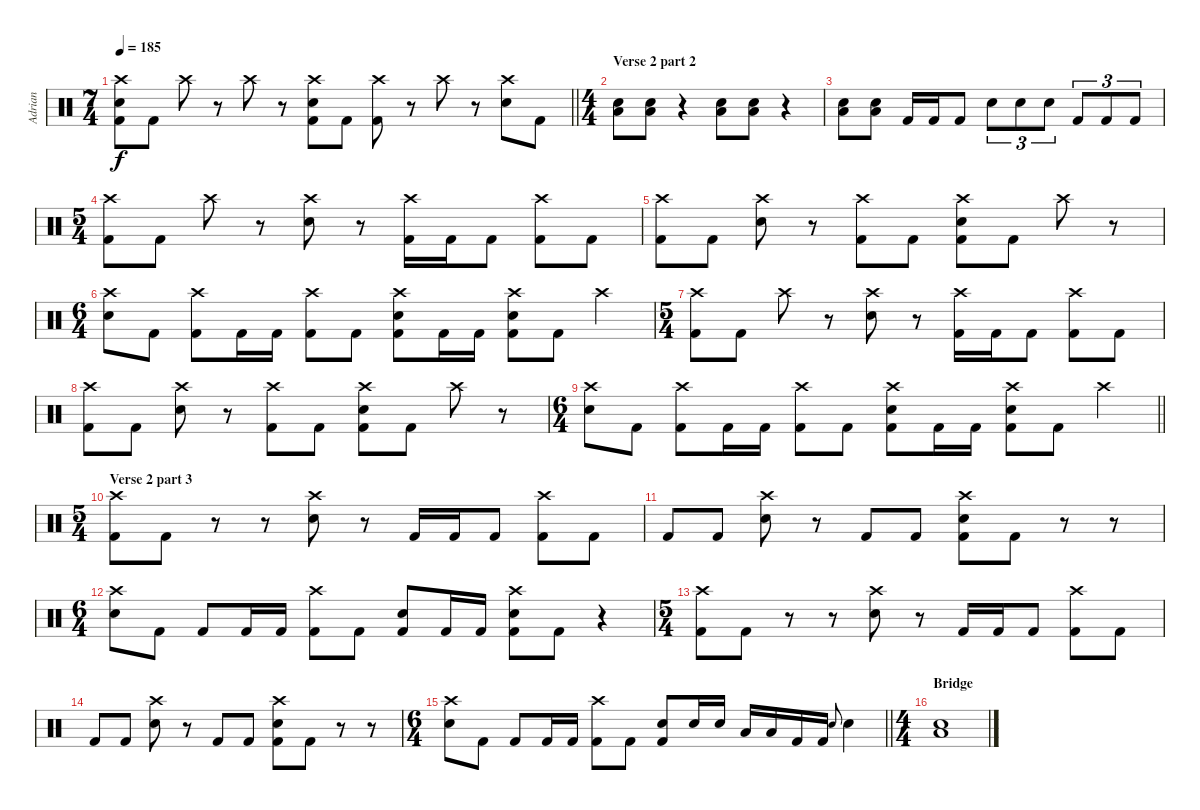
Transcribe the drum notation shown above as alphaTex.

\track ("Adrian" "Adrian") {instrument percussion}
\staff {score}
\articulation defaults
\ts (7 4)
\tempo 185
\clef neutral
\barLineRight lightlight
\ks c
("Crash high (hit)" "Snare (hit) 2" "Kick (hit) 2").8{dy f} "Kick (hit) 2".8 "Crash high (hit)".8 r.8 "Crash high (hit)".8 r.8 ("Crash high (hit)" "Snare (hit) 2" "Kick (hit) 2").8 "Kick (hit) 2".8 ("Crash high (hit)" "Kick (hit) 2").8 r.8 "Crash high (hit)".8 r.8 ("Crash high (hit)" "Snare (hit) 2").8 "Kick (hit) 2".8 |
\ts (4 4)
\section ("" "Verse 2 part 2")
("Low Floor Tom (hit)" "Snare (hit) 2").8 ("Low Floor Tom (hit)" "Snare (hit) 2").8 r.4 ("Low Floor Tom (hit)" "Snare (hit) 2").8 ("Low Floor Tom (hit)" "Snare (hit) 2").8 r.4 |
("Low Floor Tom (hit)" "Snare (hit) 2").8 ("Low Floor Tom (hit)" "Snare (hit) 2").8 "Kick (hit) 2".16 "Kick (hit) 2".16 "Kick (hit) 2".8 "Snare (hit) 2".8{tu (3 2)} "Snare (hit) 2".8{tu (3 2)} "Snare (hit) 2".8{tu (3 2)} "Kick (hit) 2".8{tu (3 2)} "Kick (hit) 2".8{tu (3 2)} "Kick (hit) 2".8{tu (3 2)} |
\ts (5 4)
("Crash high (hit)" "Kick (hit) 2").8 "Kick (hit) 2".8 "Crash high (hit)".8 r.8 ("Crash high (hit)" "Snare (hit) 2").8 r.8 ("Crash high (hit)" "Kick (hit) 2").16 "Kick (hit) 2".16 "Kick (hit) 2".8 ("Crash high (hit)" "Kick (hit) 2").8 "Kick (hit) 2".8 |
("Crash high (hit)" "Kick (hit) 2").8 "Kick (hit) 2".8 ("Crash high (hit)" "Snare (hit) 2").8 r.8 ("Crash high (hit)" "Kick (hit) 2").8 "Kick (hit) 2".8 ("Crash high (hit)" "Snare (hit) 2" "Kick (hit) 2").8 "Kick (hit) 2".8 "Crash high (hit)".8 r.8 |
\ts (6 4)
("Crash high (hit)" "Snare (hit) 2").8 "Kick (hit) 2".8 ("Crash high (hit)" "Kick (hit) 2").8 "Kick (hit) 2".16 "Kick (hit) 2".16 ("Crash high (hit)" "Kick (hit) 2").8 "Kick (hit) 2".8 ("Crash high (hit)" "Snare (hit) 2" "Kick (hit) 2").8 "Kick (hit) 2".16 "Kick (hit) 2".16 ("Crash high (hit)" "Snare (hit) 2" "Kick (hit) 2").8 "Kick (hit) 2".8 "Crash high (hit)".4 |
\ts (5 4)
("Crash high (hit)" "Kick (hit) 2").8 "Kick (hit) 2".8 "Crash high (hit)".8 r.8 ("Crash high (hit)" "Snare (hit) 2").8 r.8 ("Crash high (hit)" "Kick (hit) 2").16 "Kick (hit) 2".16 "Kick (hit) 2".8 ("Crash high (hit)" "Kick (hit) 2").8 "Kick (hit) 2".8 |
("Crash high (hit)" "Kick (hit) 2").8 "Kick (hit) 2".8 ("Crash high (hit)" "Snare (hit) 2").8 r.8 ("Crash high (hit)" "Kick (hit) 2").8 "Kick (hit) 2".8 ("Crash high (hit)" "Snare (hit) 2" "Kick (hit) 2").8 "Kick (hit) 2".8 "Crash high (hit)".8 r.8 |
\ts (6 4)
\barLineRight lightlight
("Crash high (hit)" "Snare (hit) 2").8 "Kick (hit) 2".8 ("Crash high (hit)" "Kick (hit) 2").8 "Kick (hit) 2".16 "Kick (hit) 2".16 ("Crash high (hit)" "Kick (hit) 2").8 "Kick (hit) 2".8 ("Crash high (hit)" "Snare (hit) 2" "Kick (hit) 2").8 "Kick (hit) 2".16 "Kick (hit) 2".16 ("Crash high (hit)" "Snare (hit) 2" "Kick (hit) 2").8 "Kick (hit) 2".8 "Crash high (hit)".4 |
\ts (5 4)
\section ("" "Verse 2 part 3")
("Crash high (hit)" "Kick (hit) 2").8 "Kick (hit) 2".8 r.8 r.8 ("Crash high (hit)" "Snare (hit) 2").8 r.8 "Kick (hit) 2".16 "Kick (hit) 2".16 "Kick (hit) 2".8 ("Crash high (hit)" "Kick (hit) 2").8 "Kick (hit) 2".8 |
"Kick (hit) 2".8 "Kick (hit) 2".8 ("Crash high (hit)" "Snare (hit) 2").8 r.8 "Kick (hit) 2".8 "Kick (hit) 2".8 ("Crash high (hit)" "Snare (hit) 2" "Kick (hit) 2").8 "Kick (hit) 2".8 r.8 r.8 |
\ts (6 4)
("Crash high (hit)" "Snare (hit) 2").8 "Kick (hit) 2".8 "Kick (hit) 2".8 "Kick (hit) 2".16 "Kick (hit) 2".16 ("Crash high (hit)" "Kick (hit) 2").8 "Kick (hit) 2".8 ("Snare (hit) 2" "Kick (hit) 2").8 "Kick (hit) 2".16 "Kick (hit) 2".16 ("Crash high (hit)" "Snare (hit) 2" "Kick (hit) 2").8 "Kick (hit) 2".8 r.4 |
\ts (5 4)
("Crash high (hit)" "Kick (hit) 2").8 "Kick (hit) 2".8 r.8 r.8 ("Crash high (hit)" "Snare (hit) 2").8 r.8 "Kick (hit) 2".16 "Kick (hit) 2".16 "Kick (hit) 2".8 ("Crash high (hit)" "Kick (hit) 2").8 "Kick (hit) 2".8 |
"Kick (hit) 2".8 "Kick (hit) 2".8 ("Crash high (hit)" "Snare (hit) 2").8 r.8 "Kick (hit) 2".8 "Kick (hit) 2".8 ("Crash high (hit)" "Snare (hit) 2" "Kick (hit) 2").8 "Kick (hit) 2".8 r.8 r.8 |
\ts (6 4)
\barLineRight lightlight
("Crash high (hit)" "Snare (hit) 2").8 "Kick (hit) 2".8 "Kick (hit) 2".8 "Kick (hit) 2".16 "Kick (hit) 2".16 ("Crash high (hit)" "Kick (hit) 2").8 "Kick (hit) 2".8 ("Snare (hit) 2" "Kick (hit) 2").8 "Snare (hit) 2".16 "Snare (hit) 2".16 "Low Tom (hit)".16 "Low Tom (hit)".16 "Kick (hit) 2".16 "Kick (hit) 2".16 "Snare (hit) 2"{h}.8{gr onbeat} "Snare (hit) 2".4 |
\ts (4 4)
\section ("" "Bridge")
("Low Floor Tom (hit)" "Snare (hit) 2").1
